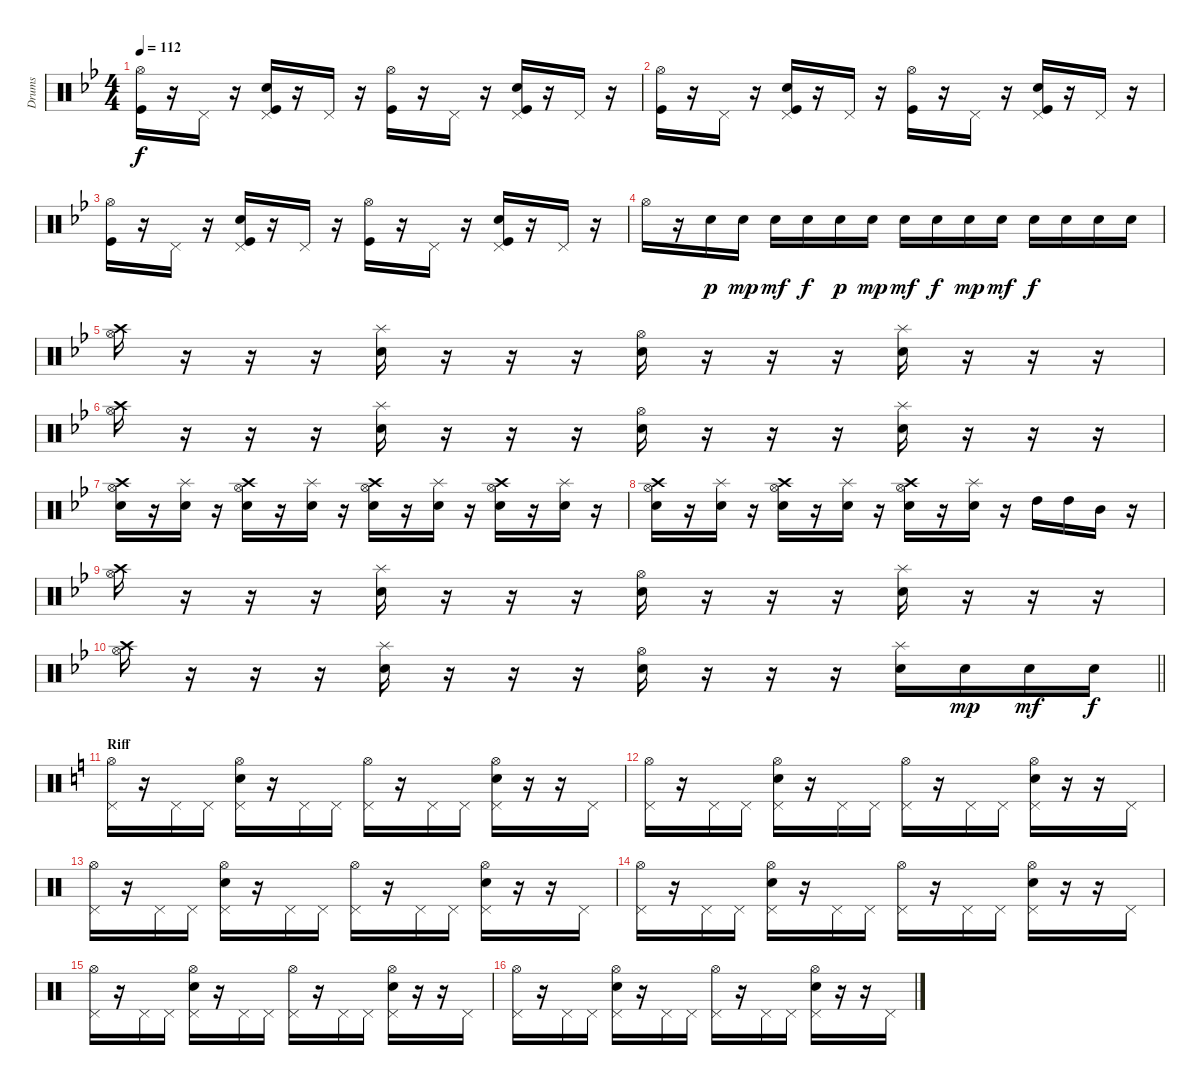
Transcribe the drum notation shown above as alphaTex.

\track ("Drums" "Drums") {instrument percussion}
\staff {score}
\articulation defaults
\ts (4 4)
\tempo 112
\clef neutral
\ks bb
("Hi-Hat (open)" "Kick (hit)").16{dy f} r.16 "Pedal Hi-Hat (hit)".16 r.16 ("Pedal Hi-Hat (hit)" "Electric Snare (hit)" "Kick (hit)").16 r.16 "Pedal Hi-Hat (hit)".16 r.16 ("Hi-Hat (open)" "Kick (hit)").16 r.16 "Pedal Hi-Hat (hit)".16 r.16 ("Pedal Hi-Hat (hit)" "Electric Snare (hit)" "Kick (hit)").16 r.16 "Pedal Hi-Hat (hit)".16 r.16 |
("Hi-Hat (open)" "Kick (hit)").16 r.16 "Pedal Hi-Hat (hit)".16 r.16 ("Pedal Hi-Hat (hit)" "Electric Snare (hit)" "Kick (hit)").16 r.16 "Pedal Hi-Hat (hit)".16 r.16 ("Hi-Hat (open)" "Kick (hit)").16 r.16 "Pedal Hi-Hat (hit)".16 r.16 ("Pedal Hi-Hat (hit)" "Electric Snare (hit)" "Kick (hit)").16 r.16 "Pedal Hi-Hat (hit)".16 r.16 |
("Hi-Hat (open)" "Kick (hit)").16 r.16 "Pedal Hi-Hat (hit)".16 r.16 ("Pedal Hi-Hat (hit)" "Electric Snare (hit)" "Kick (hit)").16 r.16 "Pedal Hi-Hat (hit)".16 r.16 ("Hi-Hat (open)" "Kick (hit)").16 r.16 "Pedal Hi-Hat (hit)".16 r.16 ("Pedal Hi-Hat (hit)" "Electric Snare (hit)" "Kick (hit)").16 r.16 "Pedal Hi-Hat (hit)".16 r.16 |
"Hi-Hat (open)".16 r.16 "Electric Snare (hit)".16{dy p} "Electric Snare (hit)".16{dy mp} "Electric Snare (hit)".16{dy mf} "Electric Snare (hit)".16{dy f} "Electric Snare (hit)".16{dy p} "Electric Snare (hit)".16{dy mp} "Electric Snare (hit)".16{dy mf} "Electric Snare (hit)".16{dy f} "Electric Snare (hit)".16{dy mp} "Electric Snare (hit)".16{dy mf} "Electric Snare (hit)".16{dy f} "Electric Snare (hit)".16 "Electric Snare (hit)".16 "Electric Snare (hit)".16 |
("Hi-Hat (open)" "Crash high (hit)").16 r.16 r.16 r.16 ("Electric Snare (hit)" "Splash (hit)").16 r.16 r.16 r.16 ("Hi-Hat (open)" "Electric Snare (hit)").16 r.16 r.16 r.16 ("Electric Snare (hit)" "Splash (hit)").16 r.16 r.16 r.16 |
("Hi-Hat (open)" "Crash high (hit)").16 r.16 r.16 r.16 ("Electric Snare (hit)" "Splash (hit)").16 r.16 r.16 r.16 ("Hi-Hat (open)" "Electric Snare (hit)").16 r.16 r.16 r.16 ("Electric Snare (hit)" "Splash (hit)").16 r.16 r.16 r.16 |
("Hi-Hat (open)" "Electric Snare (hit)" "Crash high (hit)").16 r.16 ("Electric Snare (hit)" "Splash (hit)").16 r.16 ("Hi-Hat (open)" "Electric Snare (hit)" "Crash high (hit)").16 r.16 ("Electric Snare (hit)" "Splash (hit)").16 r.16 ("Hi-Hat (open)" "Electric Snare (hit)" "Crash high (hit)").16 r.16 ("Electric Snare (hit)" "Splash (hit)").16 r.16 ("Hi-Hat (open)" "Electric Snare (hit)" "Crash high (hit)").16 r.16 ("Electric Snare (hit)" "Splash (hit)").16 r.16 |
("Hi-Hat (open)" "Electric Snare (hit)" "Crash high (hit)").16 r.16 ("Electric Snare (hit)" "Splash (hit)").16 r.16 ("Hi-Hat (open)" "Electric Snare (hit)" "Crash high (hit)").16 r.16 ("Electric Snare (hit)" "Splash (hit)").16 r.16 ("Hi-Hat (open)" "Electric Snare (hit)" "Crash high (hit)").16 r.16 ("Electric Snare (hit)" "Splash (hit)").16 r.16 "High Tom (hit)".16 "High Tom (hit)".16 "Mid Tom (hit)".16 r.16 |
("Hi-Hat (open)" "Crash high (hit)").16 r.16 r.16 r.16 ("Electric Snare (hit)" "Splash (hit)").16 r.16 r.16 r.16 ("Hi-Hat (open)" "Electric Snare (hit)").16 r.16 r.16 r.16 ("Electric Snare (hit)" "Splash (hit)").16 r.16 r.16 r.16 |
\barLineRight lightlight
("Hi-Hat (open)" "Crash high (hit)").16 r.16 r.16 r.16 ("Electric Snare (hit)" "Splash (hit)").16 r.16 r.16 r.16 ("Hi-Hat (open)" "Electric Snare (hit)").16 r.16 r.16 r.16 ("Electric Snare (hit)" "Splash (hit)").16 "Electric Snare (hit)".16{dy mp} "Electric Snare (hit)".16{dy mf} "Electric Snare (hit)".16{dy f} |
\section ("" "Riff")
\ks c
("Pedal Hi-Hat (hit)" "Hi-Hat (open)").16 r.16 "Pedal Hi-Hat (hit)".16 "Pedal Hi-Hat (hit)".16 ("Pedal Hi-Hat (hit)" "Hi-Hat (open)" "Electric Snare (hit)").16 r.16 "Pedal Hi-Hat (hit)".16 "Pedal Hi-Hat (hit)".16 ("Pedal Hi-Hat (hit)" "Hi-Hat (open)").16 r.16 "Pedal Hi-Hat (hit)".16 "Pedal Hi-Hat (hit)".16 ("Pedal Hi-Hat (hit)" "Hi-Hat (open)" "Electric Snare (hit)").16 r.16 r.16 "Pedal Hi-Hat (hit)".16 |
("Pedal Hi-Hat (hit)" "Hi-Hat (open)").16 r.16 "Pedal Hi-Hat (hit)".16 "Pedal Hi-Hat (hit)".16 ("Pedal Hi-Hat (hit)" "Hi-Hat (open)" "Electric Snare (hit)").16 r.16 "Pedal Hi-Hat (hit)".16 "Pedal Hi-Hat (hit)".16 ("Pedal Hi-Hat (hit)" "Hi-Hat (open)").16 r.16 "Pedal Hi-Hat (hit)".16 "Pedal Hi-Hat (hit)".16 ("Pedal Hi-Hat (hit)" "Hi-Hat (open)" "Electric Snare (hit)").16 r.16 r.16 "Pedal Hi-Hat (hit)".16 |
("Pedal Hi-Hat (hit)" "Hi-Hat (open)").16 r.16 "Pedal Hi-Hat (hit)".16 "Pedal Hi-Hat (hit)".16 ("Pedal Hi-Hat (hit)" "Hi-Hat (open)" "Electric Snare (hit)").16 r.16 "Pedal Hi-Hat (hit)".16 "Pedal Hi-Hat (hit)".16 ("Pedal Hi-Hat (hit)" "Hi-Hat (open)").16 r.16 "Pedal Hi-Hat (hit)".16 "Pedal Hi-Hat (hit)".16 ("Pedal Hi-Hat (hit)" "Hi-Hat (open)" "Electric Snare (hit)").16 r.16 r.16 "Pedal Hi-Hat (hit)".16 |
("Pedal Hi-Hat (hit)" "Hi-Hat (open)").16 r.16 "Pedal Hi-Hat (hit)".16 "Pedal Hi-Hat (hit)".16 ("Pedal Hi-Hat (hit)" "Hi-Hat (open)" "Electric Snare (hit)").16 r.16 "Pedal Hi-Hat (hit)".16 "Pedal Hi-Hat (hit)".16 ("Pedal Hi-Hat (hit)" "Hi-Hat (open)").16 r.16 "Pedal Hi-Hat (hit)".16 "Pedal Hi-Hat (hit)".16 ("Pedal Hi-Hat (hit)" "Hi-Hat (open)" "Electric Snare (hit)").16 r.16 r.16 "Pedal Hi-Hat (hit)".16 |
("Pedal Hi-Hat (hit)" "Hi-Hat (open)").16 r.16 "Pedal Hi-Hat (hit)".16 "Pedal Hi-Hat (hit)".16 ("Pedal Hi-Hat (hit)" "Hi-Hat (open)" "Electric Snare (hit)").16 r.16 "Pedal Hi-Hat (hit)".16 "Pedal Hi-Hat (hit)".16 ("Pedal Hi-Hat (hit)" "Hi-Hat (open)").16 r.16 "Pedal Hi-Hat (hit)".16 "Pedal Hi-Hat (hit)".16 ("Pedal Hi-Hat (hit)" "Hi-Hat (open)" "Electric Snare (hit)").16 r.16 r.16 "Pedal Hi-Hat (hit)".16 |
("Pedal Hi-Hat (hit)" "Hi-Hat (open)").16 r.16 "Pedal Hi-Hat (hit)".16 "Pedal Hi-Hat (hit)".16 ("Pedal Hi-Hat (hit)" "Hi-Hat (open)" "Electric Snare (hit)").16 r.16 "Pedal Hi-Hat (hit)".16 "Pedal Hi-Hat (hit)".16 ("Pedal Hi-Hat (hit)" "Hi-Hat (open)").16 r.16 "Pedal Hi-Hat (hit)".16 "Pedal Hi-Hat (hit)".16 ("Pedal Hi-Hat (hit)" "Hi-Hat (open)" "Electric Snare (hit)").16 r.16 r.16 "Pedal Hi-Hat (hit)".16
